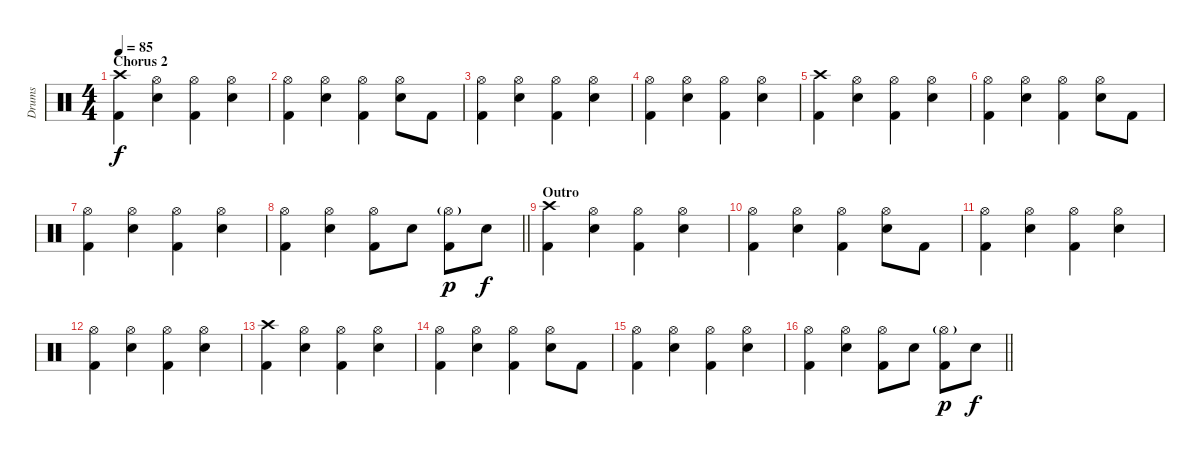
\track ("Drums" "Drums") {instrument percussion}
\staff {score}
\articulation defaults
\ts (4 4)
\section ("" "Chorus 2")
\tempo 85
\clef neutral
\ks c
("Crash high (hit)" "Kick (hit) 2").4{dy f} ("Hi-Hat (open)" "Snare (hit) 2").4 ("Hi-Hat (open)" "Kick (hit) 2").4 ("Hi-Hat (open)" "Snare (hit) 2").4 |
("Hi-Hat (open)" "Kick (hit) 2").4 ("Hi-Hat (open)" "Snare (hit) 2").4 ("Hi-Hat (open)" "Kick (hit) 2").4 ("Hi-Hat (open)" "Snare (hit) 2").8 "Kick (hit) 2".8 |
("Hi-Hat (open)" "Kick (hit) 2").4 ("Hi-Hat (open)" "Snare (hit) 2").4 ("Hi-Hat (open)" "Kick (hit) 2").4 ("Hi-Hat (open)" "Snare (hit) 2").4 |
("Hi-Hat (open)" "Kick (hit) 2").4 ("Hi-Hat (open)" "Snare (hit) 2").4 ("Hi-Hat (open)" "Kick (hit) 2").4 ("Hi-Hat (open)" "Snare (hit) 2").4 |
("Crash high (hit)" "Kick (hit) 2").4 ("Hi-Hat (open)" "Snare (hit) 2").4 ("Hi-Hat (open)" "Kick (hit) 2").4 ("Hi-Hat (open)" "Snare (hit) 2").4 |
("Hi-Hat (open)" "Kick (hit) 2").4 ("Hi-Hat (open)" "Snare (hit) 2").4 ("Hi-Hat (open)" "Kick (hit) 2").4 ("Hi-Hat (open)" "Snare (hit) 2").8 "Kick (hit) 2".8 |
("Hi-Hat (open)" "Kick (hit) 2").4 ("Hi-Hat (open)" "Snare (hit) 2").4 ("Hi-Hat (open)" "Kick (hit) 2").4 ("Hi-Hat (open)" "Snare (hit) 2").4 |
\barLineRight lightlight
("Hi-Hat (open)" "Kick (hit) 2").4 ("Hi-Hat (open)" "Snare (hit) 2").4 ("Hi-Hat (open)" "Kick (hit) 2").8 "Snare (hit) 2".8 ("Hi-Hat (open)"{g} "Kick (hit) 2").8{dy p} "Snare (hit) 2".8{dy f} |
\section ("" "Outro")
("Crash high (hit)" "Kick (hit) 2").4{volume 10} ("Hi-Hat (open)" "Snare (hit) 2").4 ("Hi-Hat (open)" "Kick (hit) 2").4 ("Hi-Hat (open)" "Snare (hit) 2").4 |
("Hi-Hat (open)" "Kick (hit) 2").4 ("Hi-Hat (open)" "Snare (hit) 2").4 ("Hi-Hat (open)" "Kick (hit) 2").4 ("Hi-Hat (open)" "Snare (hit) 2").8 "Kick (hit) 2".8 |
("Hi-Hat (open)" "Kick (hit) 2").4 ("Hi-Hat (open)" "Snare (hit) 2").4 ("Hi-Hat (open)" "Kick (hit) 2").4 ("Hi-Hat (open)" "Snare (hit) 2").4 |
("Hi-Hat (open)" "Kick (hit) 2").4 ("Hi-Hat (open)" "Snare (hit) 2").4 ("Hi-Hat (open)" "Kick (hit) 2").4 ("Hi-Hat (open)" "Snare (hit) 2").4 |
("Crash high (hit)" "Kick (hit) 2").4{volume 0} ("Hi-Hat (open)" "Snare (hit) 2").4 ("Hi-Hat (open)" "Kick (hit) 2").4 ("Hi-Hat (open)" "Snare (hit) 2").4 |
("Hi-Hat (open)" "Kick (hit) 2").4 ("Hi-Hat (open)" "Snare (hit) 2").4 ("Hi-Hat (open)" "Kick (hit) 2").4 ("Hi-Hat (open)" "Snare (hit) 2").8 "Kick (hit) 2".8 |
("Hi-Hat (open)" "Kick (hit) 2").4 ("Hi-Hat (open)" "Snare (hit) 2").4 ("Hi-Hat (open)" "Kick (hit) 2").4 ("Hi-Hat (open)" "Snare (hit) 2").4 |
\barLineRight lightlight
("Hi-Hat (open)" "Kick (hit) 2").4 ("Hi-Hat (open)" "Snare (hit) 2").4 ("Hi-Hat (open)" "Kick (hit) 2").8 "Snare (hit) 2".8 ("Hi-Hat (open)"{g} "Kick (hit) 2").8{dy p} "Snare (hit) 2".8{dy f}
